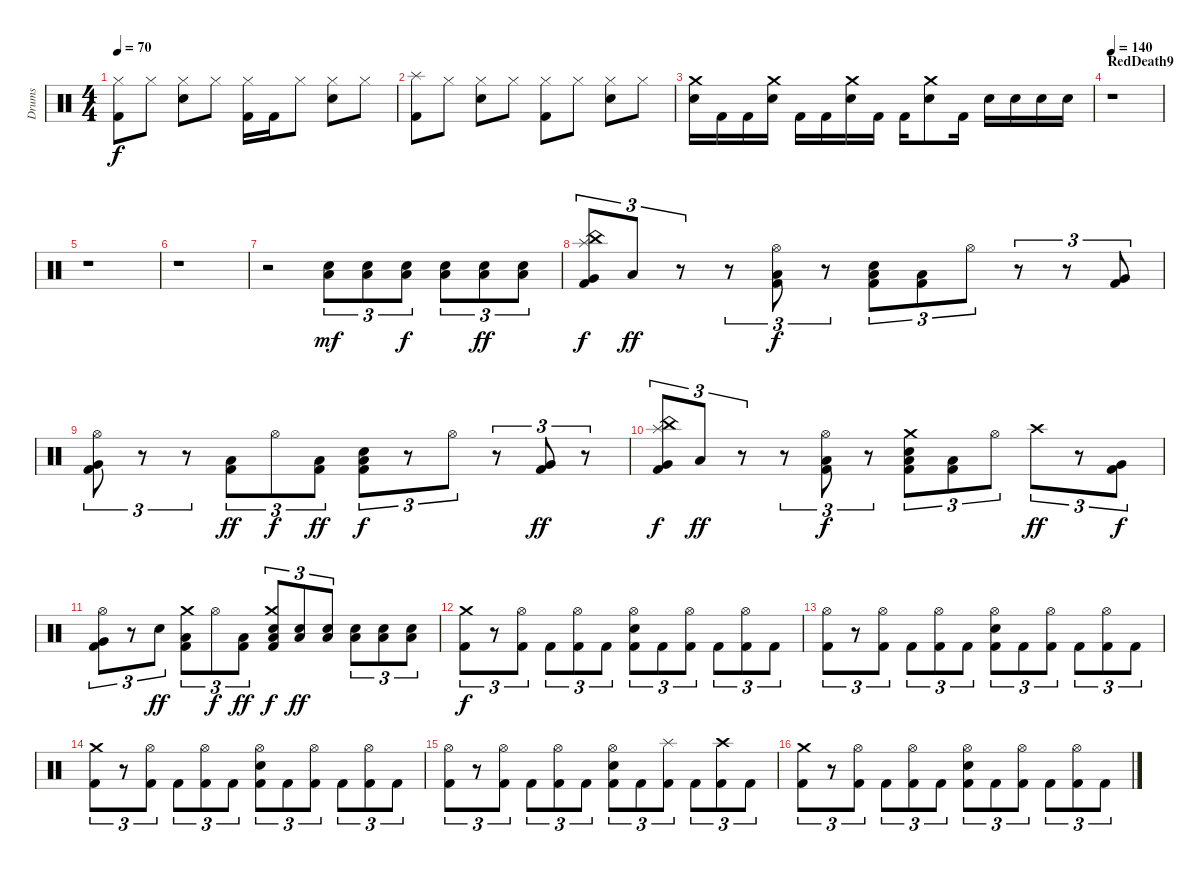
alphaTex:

\track ("Drums" "Drums") {instrument percussion}
\staff {score}
\articulation defaults
\ts (4 4)
\tempo 70
\clef neutral
\ks c
("Hi-Hat (closed)" "Kick (hit) 2").8{dy f} "Hi-Hat (closed)".8 ("Hi-Hat (closed)" "Snare (hit) 2").8 "Hi-Hat (closed)".8 ("Hi-Hat (closed)" "Kick (hit) 2").16 "Kick (hit) 2".16 "Hi-Hat (closed)".8 ("Hi-Hat (closed)" "Snare (hit) 2").8 "Hi-Hat (closed)".8 |
("Splash (hit)" "Kick (hit) 2").8 "Hi-Hat (closed)".8 ("Hi-Hat (closed)" "Snare (hit) 2").8 "Hi-Hat (closed)".8 ("Hi-Hat (closed)" "Kick (hit) 2").8 "Hi-Hat (closed)".8 ("Hi-Hat (closed)" "Snare (hit) 2").8 "Hi-Hat (closed)".8 |
("Crash medium (hit)" "Snare (hit) 2").16 "Kick (hit) 2".16 "Kick (hit) 2".16 ("Crash medium (hit)" "Snare (hit) 2").16 "Kick (hit) 2".16 "Kick (hit) 2".16 ("Crash medium (hit)" "Snare (hit) 2").16 "Kick (hit) 2".16 "Kick (hit) 2".16 ("Crash medium (hit)" "Snare (hit) 2").8 "Kick (hit) 2".16 "Snare (hit) 2".16 "Snare (hit) 2".16 "Snare (hit) 2".16 "Snare (hit) 2".16 |
\section ("" "RedDeath9")
\tempo 140
r.1 |
r.1 |
r.1 |
r.2 ("Electric Snare (hit)" "Low Floor Tom (hit)").8{tu (3 2) dy mf} ("Electric Snare (hit)" "Low Floor Tom (hit)").8{tu (3 2)} ("Electric Snare (hit)" "Low Floor Tom (hit)").8{tu (3 2) dy f} ("Electric Snare (hit)" "Low Floor Tom (hit)").8{tu (3 2)} ("Electric Snare (hit)" "Low Floor Tom (hit)").8{tu (3 2) dy ff} ("Electric Snare (hit)" "Low Floor Tom (hit)").8{tu (3 2)} |
("Splash (hit)" "China (hit)" "Very Low Tom (hit)" "Kick (hit) 2").8{tu (3 2) dy f} "Low Floor Tom (hit)".8{tu (3 2) dy ff} r.8{tu (3 2)} r.8{tu (3 2)} ("Hi-Hat (open)" "Low Floor Tom (hit)" "Kick (hit) 2").8{tu (3 2) dy f} r.8{tu (3 2)} ("Electric Snare (hit)" "Low Floor Tom (hit)" "Kick (hit) 2").8{tu (3 2)} ("Low Floor Tom (hit)" "Kick (hit) 2").8{tu (3 2)} "Hi-Hat (open)".8{tu (3 2)} r.8{tu (3 2)} r.8{tu (3 2)} ("Very Low Tom (hit)" "Kick (hit) 2").8{tu (3 2)} |
("Hi-Hat (open)" "Very Low Tom (hit)" "Kick (hit) 2").8{tu (3 2)} r.8{tu (3 2)} r.8{tu (3 2)} ("Low Floor Tom (hit)" "Kick (hit) 2").8{tu (3 2) dy ff} "Hi-Hat (open)".8{tu (3 2) dy f} ("Low Floor Tom (hit)" "Kick (hit) 2").8{tu (3 2) dy ff} ("Electric Snare (hit)" "Low Floor Tom (hit)" "Kick (hit) 2").8{tu (3 2) dy f} r.8{tu (3 2)} "Hi-Hat (open)".8{tu (3 2)} r.8{tu (3 2)} ("Very Low Tom (hit)" "Kick (hit) 2").8{tu (3 2) dy ff} r.8{tu (3 2)} |
("Splash (hit)" "China (hit)" "Very Low Tom (hit)" "Kick (hit) 2").8{tu (3 2) dy f} "Low Floor Tom (hit)".8{tu (3 2) dy ff} r.8{tu (3 2)} r.8{tu (3 2)} ("Hi-Hat (open)" "Low Floor Tom (hit)" "Kick (hit) 2").8{tu (3 2) dy f} r.8{tu (3 2)} ("Crash medium (hit)" "Electric Snare (hit)" "Low Floor Tom (hit)" "Kick (hit) 2").8{tu (3 2)} ("Low Floor Tom (hit)" "Kick (hit) 2").8{tu (3 2)} "Hi-Hat (open)".8{tu (3 2)} "Crash high (hit)".8{tu (3 2) dy ff} r.8{tu (3 2)} ("Very Low Tom (hit)" "Kick (hit) 2").8{tu (3 2) dy f} |
("Hi-Hat (open)" "Very Low Tom (hit)" "Kick (hit) 2").8{tu (3 2)} r.8{tu (3 2)} "Electric Snare (hit)".8{tu (3 2) dy ff} ("Crash medium (hit)" "Low Floor Tom (hit)" "Kick (hit) 2").8{tu (3 2)} "Hi-Hat (open)".8{tu (3 2) dy f} ("Low Floor Tom (hit)" "Kick (hit) 2").8{tu (3 2) dy ff} ("Crash medium (hit)" "Electric Snare (hit)" "Low Floor Tom (hit)" "Kick (hit) 2").8{tu (3 2) dy f} ("Electric Snare (hit)" "Low Floor Tom (hit)").8{tu (3 2) dy ff} ("Electric Snare (hit)" "Low Floor Tom (hit)").8{tu (3 2)} ("Electric Snare (hit)" "Low Floor Tom (hit)").8{tu (3 2)} ("Electric Snare (hit)" "Low Floor Tom (hit)").8{tu (3 2)} ("Electric Snare (hit)" "Low Floor Tom (hit)").8{tu (3 2)} |
("Crash medium (hit)" "Kick (hit) 2").8{tu (3 2) dy f} r.8{tu (3 2)} ("Hi-Hat (open)" "Kick (hit) 2").8{tu (3 2)} "Kick (hit) 2".8{tu (3 2)} ("Hi-Hat (open)" "Kick (hit) 2").8{tu (3 2)} "Kick (hit) 2".8{tu (3 2)} ("Hi-Hat (open)" "Electric Snare (hit)" "Kick (hit) 2").8{tu (3 2)} "Kick (hit) 2".8{tu (3 2)} ("Hi-Hat (open)" "Kick (hit) 2").8{tu (3 2)} "Kick (hit) 2".8{tu (3 2)} ("Hi-Hat (open)" "Kick (hit) 2").8{tu (3 2)} "Kick (hit) 2".8{tu (3 2)} |
("Hi-Hat (open)" "Kick (hit) 2").8{tu (3 2)} r.8{tu (3 2)} ("Hi-Hat (open)" "Kick (hit) 2").8{tu (3 2)} "Kick (hit) 2".8{tu (3 2)} ("Hi-Hat (open)" "Kick (hit) 2").8{tu (3 2)} "Kick (hit) 2".8{tu (3 2)} ("Hi-Hat (open)" "Electric Snare (hit)" "Kick (hit) 2").8{tu (3 2)} "Kick (hit) 2".8{tu (3 2)} ("Hi-Hat (open)" "Kick (hit) 2").8{tu (3 2)} "Kick (hit) 2".8{tu (3 2)} ("Hi-Hat (open)" "Kick (hit) 2").8{tu (3 2)} "Kick (hit) 2".8{tu (3 2)} |
("Crash medium (hit)" "Kick (hit) 2").8{tu (3 2)} r.8{tu (3 2)} ("Hi-Hat (open)" "Kick (hit) 2").8{tu (3 2)} "Kick (hit) 2".8{tu (3 2)} ("Hi-Hat (open)" "Kick (hit) 2").8{tu (3 2)} "Kick (hit) 2".8{tu (3 2)} ("Hi-Hat (open)" "Electric Snare (hit)" "Kick (hit) 2").8{tu (3 2)} "Kick (hit) 2".8{tu (3 2)} ("Hi-Hat (open)" "Kick (hit) 2").8{tu (3 2)} "Kick (hit) 2".8{tu (3 2)} ("Hi-Hat (open)" "Kick (hit) 2").8{tu (3 2)} "Kick (hit) 2".8{tu (3 2)} |
("Hi-Hat (open)" "Kick (hit) 2").8{tu (3 2)} r.8{tu (3 2)} ("Hi-Hat (open)" "Kick (hit) 2").8{tu (3 2)} "Kick (hit) 2".8{tu (3 2)} ("Hi-Hat (open)" "Kick (hit) 2").8{tu (3 2)} "Kick (hit) 2".8{tu (3 2)} ("Hi-Hat (open)" "Electric Snare (hit)" "Kick (hit) 2").8{tu (3 2)} "Kick (hit) 2".8{tu (3 2)} ("Splash (hit)" "Kick (hit) 2").8{tu (3 2)} "Kick (hit) 2".8{tu (3 2)} ("Crash high (hit)" "Kick (hit) 2").8{tu (3 2)} "Kick (hit) 2".8{tu (3 2)} |
("Crash medium (hit)" "Kick (hit) 2").8{tu (3 2)} r.8{tu (3 2)} ("Hi-Hat (open)" "Kick (hit) 2").8{tu (3 2)} "Kick (hit) 2".8{tu (3 2)} ("Hi-Hat (open)" "Kick (hit) 2").8{tu (3 2)} "Kick (hit) 2".8{tu (3 2)} ("Hi-Hat (open)" "Electric Snare (hit)" "Kick (hit) 2").8{tu (3 2)} "Kick (hit) 2".8{tu (3 2)} ("Hi-Hat (open)" "Kick (hit) 2").8{tu (3 2)} "Kick (hit) 2".8{tu (3 2)} ("Hi-Hat (open)" "Kick (hit) 2").8{tu (3 2)} "Kick (hit) 2".8{tu (3 2)}
